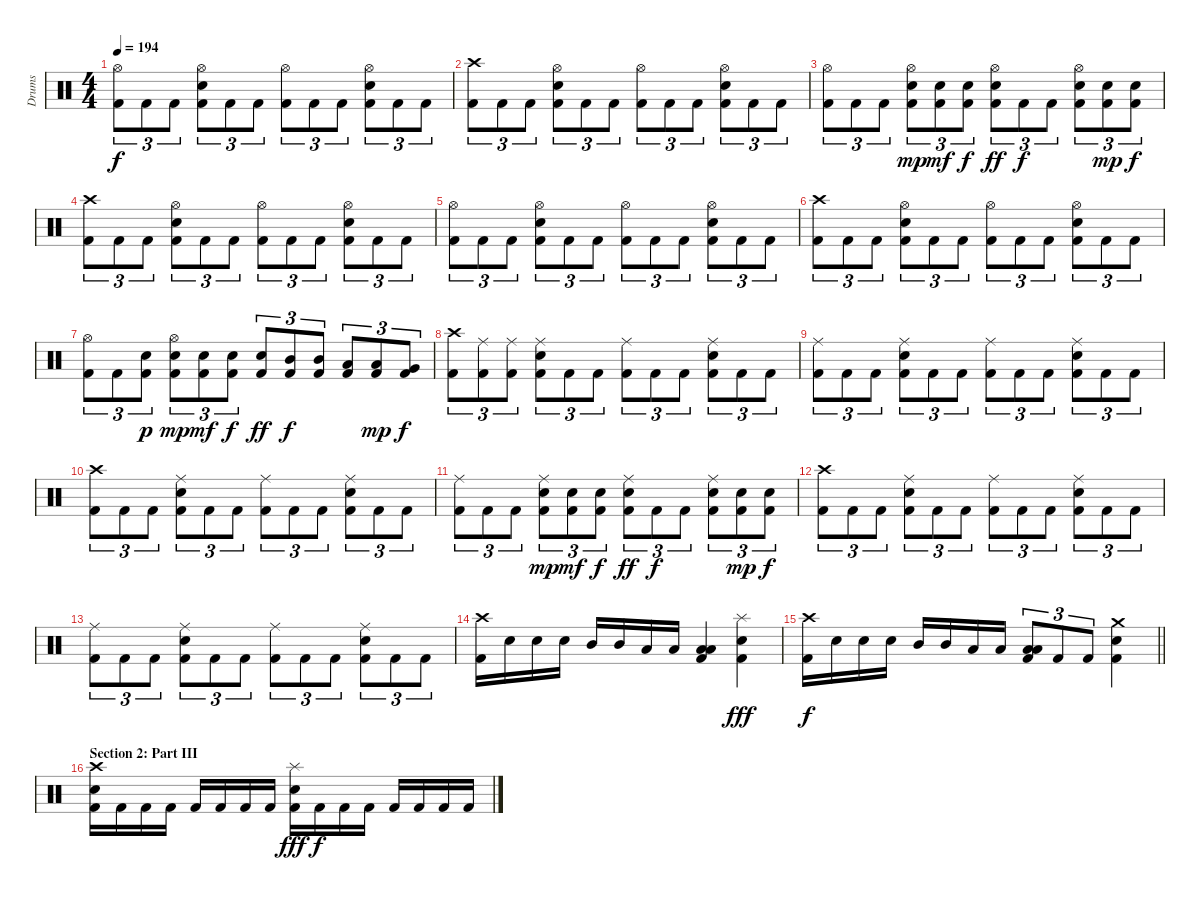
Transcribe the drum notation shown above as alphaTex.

\track ("Drums" "Drums") {instrument percussion}
\staff {score}
\articulation defaults
\ts (4 4)
\tempo 194
\clef neutral
\ks c
("Hi-Hat (open)" "Kick (hit) 2").8{tu (3 2) dy f} "Kick (hit) 2".8{tu (3 2)} "Kick (hit) 2".8{tu (3 2)} ("Hi-Hat (open)" "Electric Snare (hit)" "Kick (hit) 2").8{tu (3 2)} "Kick (hit) 2".8{tu (3 2)} "Kick (hit) 2".8{tu (3 2)} ("Hi-Hat (open)" "Kick (hit) 2").8{tu (3 2)} "Kick (hit) 2".8{tu (3 2)} "Kick (hit) 2".8{tu (3 2)} ("Hi-Hat (open)" "Electric Snare (hit)" "Kick (hit) 2").8{tu (3 2)} "Kick (hit) 2".8{tu (3 2)} "Kick (hit) 2".8{tu (3 2)} |
("Crash high (hit)" "Kick (hit) 2").8{tu (3 2)} "Kick (hit) 2".8{tu (3 2)} "Kick (hit) 2".8{tu (3 2)} ("Hi-Hat (open)" "Electric Snare (hit)" "Kick (hit) 2").8{tu (3 2)} "Kick (hit) 2".8{tu (3 2)} "Kick (hit) 2".8{tu (3 2)} ("Hi-Hat (open)" "Kick (hit) 2").8{tu (3 2)} "Kick (hit) 2".8{tu (3 2)} "Kick (hit) 2".8{tu (3 2)} ("Hi-Hat (open)" "Electric Snare (hit)" "Kick (hit) 2").8{tu (3 2)} "Kick (hit) 2".8{tu (3 2)} "Kick (hit) 2".8{tu (3 2)} |
("Hi-Hat (open)" "Kick (hit) 2").8{tu (3 2)} "Kick (hit) 2".8{tu (3 2)} "Kick (hit) 2".8{tu (3 2)} ("Hi-Hat (open)" "Electric Snare (hit)" "Kick (hit) 2").8{tu (3 2) dy mp} ("Electric Snare (hit)" "Kick (hit) 2").8{tu (3 2) dy mf} ("Electric Snare (hit)" "Kick (hit) 2").8{tu (3 2) dy f} ("Hi-Hat (open)" "Electric Snare (hit)" "Kick (hit) 2").8{tu (3 2) dy ff} "Kick (hit) 2".8{tu (3 2) dy f} "Kick (hit) 2".8{tu (3 2)} ("Hi-Hat (open)" "Electric Snare (hit)" "Kick (hit) 2").8{tu (3 2)} ("Electric Snare (hit)" "Kick (hit) 2").8{tu (3 2) dy mp} ("Electric Snare (hit)" "Kick (hit) 2").8{tu (3 2) dy f} |
("Crash high (hit)" "Kick (hit) 2").8{tu (3 2)} "Kick (hit) 2".8{tu (3 2)} "Kick (hit) 2".8{tu (3 2)} ("Hi-Hat (open)" "Electric Snare (hit)" "Kick (hit) 2").8{tu (3 2)} "Kick (hit) 2".8{tu (3 2)} "Kick (hit) 2".8{tu (3 2)} ("Hi-Hat (open)" "Kick (hit) 2").8{tu (3 2)} "Kick (hit) 2".8{tu (3 2)} "Kick (hit) 2".8{tu (3 2)} ("Hi-Hat (open)" "Electric Snare (hit)" "Kick (hit) 2").8{tu (3 2)} "Kick (hit) 2".8{tu (3 2)} "Kick (hit) 2".8{tu (3 2)} |
("Hi-Hat (open)" "Kick (hit) 2").8{tu (3 2)} "Kick (hit) 2".8{tu (3 2)} "Kick (hit) 2".8{tu (3 2)} ("Hi-Hat (open)" "Electric Snare (hit)" "Kick (hit) 2").8{tu (3 2)} "Kick (hit) 2".8{tu (3 2)} "Kick (hit) 2".8{tu (3 2)} ("Hi-Hat (open)" "Kick (hit) 2").8{tu (3 2)} "Kick (hit) 2".8{tu (3 2)} "Kick (hit) 2".8{tu (3 2)} ("Hi-Hat (open)" "Electric Snare (hit)" "Kick (hit) 2").8{tu (3 2)} "Kick (hit) 2".8{tu (3 2)} "Kick (hit) 2".8{tu (3 2)} |
("Crash high (hit)" "Kick (hit) 2").8{tu (3 2)} "Kick (hit) 2".8{tu (3 2)} "Kick (hit) 2".8{tu (3 2)} ("Hi-Hat (open)" "Electric Snare (hit)" "Kick (hit) 2").8{tu (3 2)} "Kick (hit) 2".8{tu (3 2)} "Kick (hit) 2".8{tu (3 2)} ("Hi-Hat (open)" "Kick (hit) 2").8{tu (3 2)} "Kick (hit) 2".8{tu (3 2)} "Kick (hit) 2".8{tu (3 2)} ("Hi-Hat (open)" "Electric Snare (hit)" "Kick (hit) 2").8{tu (3 2)} "Kick (hit) 2".8{tu (3 2)} "Kick (hit) 2".8{tu (3 2)} |
("Hi-Hat (open)" "Kick (hit) 2").8{tu (3 2)} "Kick (hit) 2".8{tu (3 2)} ("Electric Snare (hit)" "Kick (hit) 2").8{tu (3 2) dy p} ("Hi-Hat (open)" "Electric Snare (hit)" "Kick (hit) 2").8{tu (3 2) dy mp} ("Electric Snare (hit)" "Kick (hit) 2").8{tu (3 2) dy mf} ("Electric Snare (hit)" "Kick (hit) 2").8{tu (3 2) dy f} ("Electric Snare (hit)" "Kick (hit) 2").8{tu (3 2) dy ff} ("Mid Tom (hit)" "Kick (hit) 2").8{tu (3 2) dy f} ("Mid Tom (hit)" "Kick (hit) 2").8{tu (3 2)} ("Low Tom (hit)" "Kick (hit) 2").8{tu (3 2)} ("Low Tom (hit)" "Kick (hit) 2").8{tu (3 2) dy mp} ("Very Low Tom (hit)" "Kick (hit) 2").8{tu (3 2) dy f} |
("Crash high (hit)" "Kick (hit) 2").8{tu (3 2)} ("Ride (middle)" "Kick (hit) 2").8{tu (3 2)} ("Ride (middle)" "Kick (hit) 2").8{tu (3 2)} ("Ride (middle)" "Electric Snare (hit)" "Kick (hit) 2").8{tu (3 2)} "Kick (hit) 2".8{tu (3 2)} "Kick (hit) 2".8{tu (3 2)} ("Ride (middle)" "Kick (hit) 2").8{tu (3 2)} "Kick (hit) 2".8{tu (3 2)} "Kick (hit) 2".8{tu (3 2)} ("Ride (middle)" "Electric Snare (hit)" "Kick (hit) 2").8{tu (3 2)} "Kick (hit) 2".8{tu (3 2)} "Kick (hit) 2".8{tu (3 2)} |
("Ride (middle)" "Kick (hit) 2").8{tu (3 2)} "Kick (hit) 2".8{tu (3 2)} "Kick (hit) 2".8{tu (3 2)} ("Ride (middle)" "Electric Snare (hit)" "Kick (hit) 2").8{tu (3 2)} "Kick (hit) 2".8{tu (3 2)} "Kick (hit) 2".8{tu (3 2)} ("Ride (middle)" "Kick (hit) 2").8{tu (3 2)} "Kick (hit) 2".8{tu (3 2)} "Kick (hit) 2".8{tu (3 2)} ("Ride (middle)" "Electric Snare (hit)" "Kick (hit) 2").8{tu (3 2)} "Kick (hit) 2".8{tu (3 2)} "Kick (hit) 2".8{tu (3 2)} |
("Crash high (hit)" "Kick (hit) 2").8{tu (3 2)} "Kick (hit) 2".8{tu (3 2)} "Kick (hit) 2".8{tu (3 2)} ("Ride (middle)" "Electric Snare (hit)" "Kick (hit) 2").8{tu (3 2)} "Kick (hit) 2".8{tu (3 2)} "Kick (hit) 2".8{tu (3 2)} ("Ride (middle)" "Kick (hit) 2").8{tu (3 2)} "Kick (hit) 2".8{tu (3 2)} "Kick (hit) 2".8{tu (3 2)} ("Ride (middle)" "Electric Snare (hit)" "Kick (hit) 2").8{tu (3 2)} "Kick (hit) 2".8{tu (3 2)} "Kick (hit) 2".8{tu (3 2)} |
("Ride (middle)" "Kick (hit) 2").8{tu (3 2)} "Kick (hit) 2".8{tu (3 2)} "Kick (hit) 2".8{tu (3 2)} ("Ride (middle)" "Electric Snare (hit)" "Kick (hit) 2").8{tu (3 2) dy mp} ("Electric Snare (hit)" "Kick (hit) 2").8{tu (3 2) dy mf} ("Electric Snare (hit)" "Kick (hit) 2").8{tu (3 2) dy f} ("Ride (middle)" "Electric Snare (hit)" "Kick (hit) 2").8{tu (3 2) dy ff} "Kick (hit) 2".8{tu (3 2) dy f} "Kick (hit) 2".8{tu (3 2)} ("Ride (middle)" "Electric Snare (hit)" "Kick (hit) 2").8{tu (3 2)} ("Electric Snare (hit)" "Kick (hit) 2").8{tu (3 2) dy mp} ("Electric Snare (hit)" "Kick (hit) 2").8{tu (3 2) dy f} |
("Crash high (hit)" "Kick (hit) 2").8{tu (3 2)} "Kick (hit) 2".8{tu (3 2)} "Kick (hit) 2".8{tu (3 2)} ("Ride (middle)" "Electric Snare (hit)" "Kick (hit) 2").8{tu (3 2)} "Kick (hit) 2".8{tu (3 2)} "Kick (hit) 2".8{tu (3 2)} ("Ride (middle)" "Kick (hit) 2").8{tu (3 2)} "Kick (hit) 2".8{tu (3 2)} "Kick (hit) 2".8{tu (3 2)} ("Ride (middle)" "Electric Snare (hit)" "Kick (hit) 2").8{tu (3 2)} "Kick (hit) 2".8{tu (3 2)} "Kick (hit) 2".8{tu (3 2)} |
("Ride (middle)" "Kick (hit) 2").8{tu (3 2)} "Kick (hit) 2".8{tu (3 2)} "Kick (hit) 2".8{tu (3 2)} ("Ride (middle)" "Electric Snare (hit)" "Kick (hit) 2").8{tu (3 2)} "Kick (hit) 2".8{tu (3 2)} "Kick (hit) 2".8{tu (3 2)} ("Ride (middle)" "Kick (hit) 2").8{tu (3 2)} "Kick (hit) 2".8{tu (3 2)} "Kick (hit) 2".8{tu (3 2)} ("Ride (middle)" "Electric Snare (hit)" "Kick (hit) 2").8{tu (3 2)} "Kick (hit) 2".8{tu (3 2)} "Kick (hit) 2".8{tu (3 2)} |
("Crash high (hit)" "Kick (hit) 2").16 "Electric Snare (hit)".16 "Electric Snare (hit)".16 "Electric Snare (hit)".16 "Mid Tom (hit)".16 "Mid Tom (hit)".16 "Low Tom (hit)".16 "Low Tom (hit)".16 ("Low Floor Tom (hit)" "Low Floor Tom (hit)" "Kick (hit) 2").4 ("Splash (hit)" "Electric Snare (hit)" "Kick (hit) 2").4{dy fff} |
\barLineRight lightlight
("Crash high (hit)" "Kick (hit) 2").16{dy f} "Electric Snare (hit)".16 "Electric Snare (hit)".16 "Electric Snare (hit)".16 "Mid Tom (hit)".16 "Mid Tom (hit)".16 "Low Tom (hit)".16 "Low Tom (hit)".16 ("Low Floor Tom (hit)" "Low Floor Tom (hit)" "Kick (hit) 2").8{tu (3 2)} "Kick (hit) 2".8{tu (3 2)} "Kick (hit) 2".8{tu (3 2)} ("Crash medium (hit)" "Electric Snare (hit)" "Kick (hit) 2").4 |
\section ("" "Section 2: Part III")
("Crash high (hit)" "Electric Snare (hit)" "Kick (hit) 2").16 "Kick (hit) 2".16 "Kick (hit) 2".16 "Kick (hit) 2".16 "Kick (hit) 2".16 "Kick (hit) 2".16 "Kick (hit) 2".16 "Kick (hit) 2".16 ("Splash (hit)" "Electric Snare (hit)" "Kick (hit) 2").16{dy fff} "Kick (hit) 2".16{dy f} "Kick (hit) 2".16 "Kick (hit) 2".16 "Kick (hit) 2".16 "Kick (hit) 2".16 "Kick (hit) 2".16 "Kick (hit) 2".16
